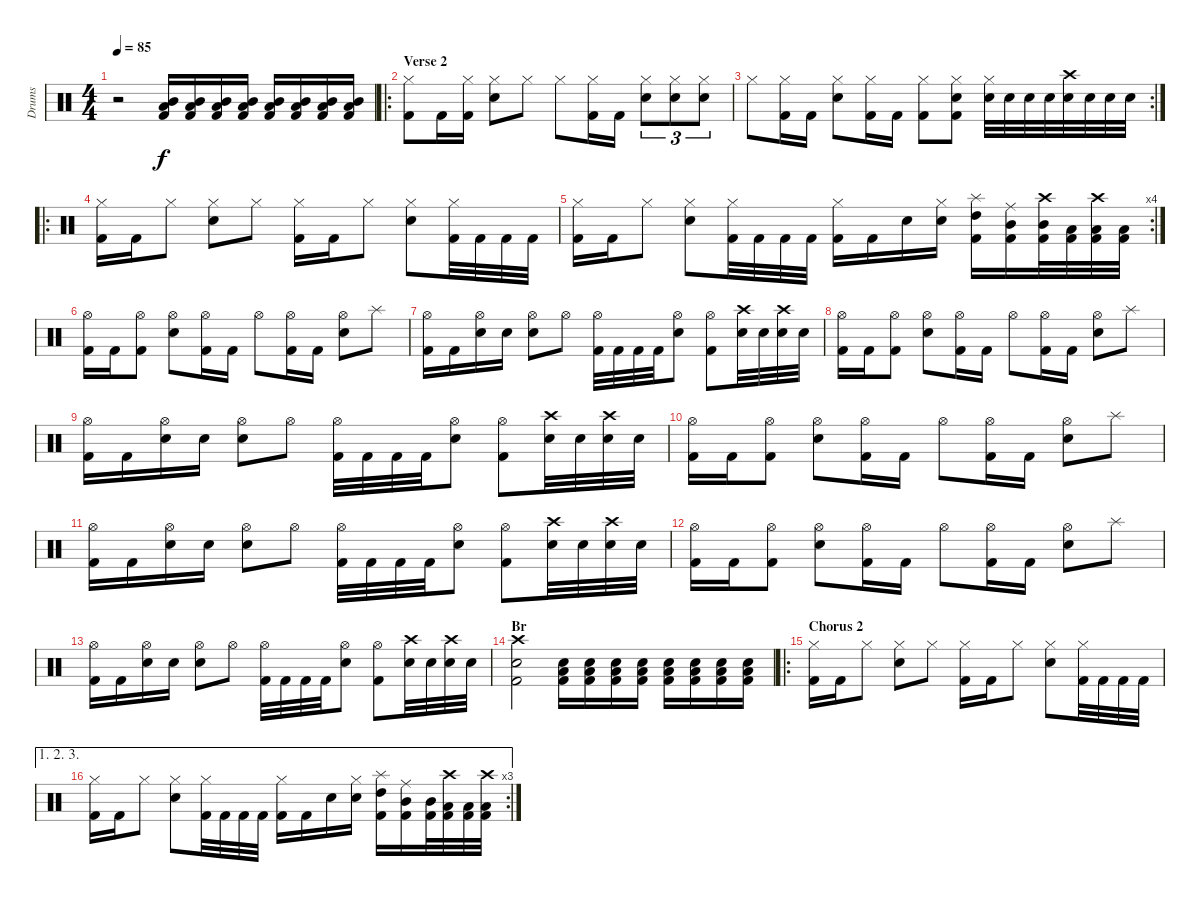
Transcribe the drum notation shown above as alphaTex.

\track ("Drums" "Drums") {instrument percussion}
\staff {score}
\articulation defaults
\ts (4 4)
\tempo 85
\clef neutral
\ks c
r.2{dy f} ("Mid Tom (hit)" "Low Floor Tom (hit)" "Kick (hit) 2").16{volume 15} ("Mid Tom (hit)" "Low Floor Tom (hit)" "Kick (hit) 2").16 ("Mid Tom (hit)" "Low Floor Tom (hit)" "Kick (hit) 2").16 ("Mid Tom (hit)" "Low Floor Tom (hit)" "Kick (hit) 2").16 ("Mid Tom (hit)" "Low Floor Tom (hit)" "Kick (hit) 2").16 ("Mid Tom (hit)" "Low Floor Tom (hit)" "Kick (hit) 2").16 ("Mid Tom (hit)" "Low Floor Tom (hit)" "Kick (hit) 2").16 ("Mid Tom (hit)" "Low Floor Tom (hit)" "Kick (hit) 2").16 |
\ro
\section ("" "Verse 2")
("Hi-Hat (closed)" "Kick (hit) 2").8{volume 11} "Kick (hit) 2".16 ("Hi-Hat (closed)" "Kick (hit) 2").16 ("Hi-Hat (closed)" "Snare (hit) 2").8 "Hi-Hat (closed)".8 "Hi-Hat (closed)".8 ("Hi-Hat (closed)" "Kick (hit) 2").16 "Kick (hit) 2".16 ("Hi-Hat (closed)" "Snare (hit) 2").8{tu (3 2)} ("Hi-Hat (closed)" "Snare (hit) 2").8{tu (3 2)} ("Hi-Hat (closed)" "Snare (hit) 2").8{tu (3 2)} |
\rc 2 "Hi-Hat (closed)".8
("Hi-Hat (closed)" "Kick (hit) 2").16 "Kick (hit) 2".16 ("Hi-Hat (closed)" "Snare (hit) 2").8 ("Hi-Hat (closed)" "Kick (hit) 2").16 "Kick (hit) 2".16 ("Hi-Hat (closed)" "Kick (hit) 2").8 ("Hi-Hat (closed)" "Snare (hit) 2" "Kick (hit) 2").8 ("Hi-Hat (closed)" "Snare (hit) 2").32 "Snare (hit) 2".32 "Snare (hit) 2".32 "Snare (hit) 2".32 ("Crash high (hit)" "Snare (hit) 2").32 "Snare (hit) 2".32 "Snare (hit) 2".32 "Snare (hit) 2".32 |
\ro
("Hi-Hat (closed)" "Kick (hit) 2").16 "Kick (hit) 2".16 "Hi-Hat (closed)".8 ("Hi-Hat (closed)" "Snare (hit) 2").8 "Hi-Hat (closed)".8 ("Hi-Hat (closed)" "Kick (hit) 2").16 "Kick (hit) 2".16 "Hi-Hat (closed)".8 ("Hi-Hat (closed)" "Snare (hit) 2").8 ("Hi-Hat (closed)" "Kick (hit) 2").32 "Kick (hit) 2".32 "Kick (hit) 2".32 "Kick (hit) 2".32 |
\rc 4
("Hi-Hat (closed)" "Kick (hit) 2").16 "Kick (hit) 2".16 "Hi-Hat (closed)".8 ("Hi-Hat (closed)" "Snare (hit) 2").8 ("Hi-Hat (closed)" "Kick (hit) 2").32 "Kick (hit) 2".32 "Kick (hit) 2".32 "Kick (hit) 2".32 ("Hi-Hat (closed)" "Kick (hit) 2").16 "Kick (hit) 2".16 "Snare (hit) 2".16 ("Hi-Hat (closed)" "Snare (hit) 2").16 ("Splash (hit)" "High Tom (hit)" "Kick (hit) 2").16 ("Ride (middle)" "Mid Tom (hit)" "Kick (hit) 2").16 ("Crash high (hit)" "Mid Tom (hit)" "Kick (hit) 2").32 ("Low Tom (hit)" "Kick (hit) 2").32 ("Crash high (hit)" "Low Tom (hit)" "Kick (hit) 2").32 ("Low Tom (hit)" "Kick (hit) 2").32 |
("Hi-Hat (open)" "Kick (hit) 2").16 "Kick (hit) 2".16 ("Hi-Hat (open)" "Kick (hit) 2").8 ("Hi-Hat (open)" "Snare (hit) 2").8 ("Hi-Hat (open)" "Kick (hit) 2").16 "Kick (hit) 2".16 "Hi-Hat (open)".8 ("Hi-Hat (open)" "Kick (hit) 2").16 "Kick (hit) 2".16 ("Hi-Hat (open)" "Snare (hit) 2").8 "Splash (hit)".8 |
("Hi-Hat (open)" "Kick (hit) 2").16 "Kick (hit) 2".16 ("Hi-Hat (open)" "Snare (hit) 2").16 "Snare (hit) 2".16 ("Hi-Hat (open)" "Snare (hit) 2").8 "Hi-Hat (open)".8 ("Hi-Hat (open)" "Kick (hit) 2").32 "Kick (hit) 2".32 "Kick (hit) 2".32 "Kick (hit) 2".32 ("Hi-Hat (open)" "Snare (hit) 2").8 ("Hi-Hat (open)" "Kick (hit) 2").8 ("Crash high (hit)" "Snare (hit) 2").32 "Snare (hit) 2".32 ("Crash high (hit)" "Snare (hit) 2").32 "Snare (hit) 2".32 |
("Hi-Hat (open)" "Kick (hit) 2").16 "Kick (hit) 2".16 ("Hi-Hat (open)" "Kick (hit) 2").8 ("Hi-Hat (open)" "Snare (hit) 2").8 ("Hi-Hat (open)" "Kick (hit) 2").16 "Kick (hit) 2".16 "Hi-Hat (open)".8 ("Hi-Hat (open)" "Kick (hit) 2").16 "Kick (hit) 2".16 ("Hi-Hat (open)" "Snare (hit) 2").8 "Splash (hit)".8 |
("Hi-Hat (open)" "Kick (hit) 2").16 "Kick (hit) 2".16 ("Hi-Hat (open)" "Snare (hit) 2").16 "Snare (hit) 2".16 ("Hi-Hat (open)" "Snare (hit) 2").8 "Hi-Hat (open)".8 ("Hi-Hat (open)" "Kick (hit) 2").32 "Kick (hit) 2".32 "Kick (hit) 2".32 "Kick (hit) 2".32 ("Hi-Hat (open)" "Snare (hit) 2").8 ("Hi-Hat (open)" "Kick (hit) 2").8 ("Crash high (hit)" "Snare (hit) 2").32 "Snare (hit) 2".32 ("Crash high (hit)" "Snare (hit) 2").32 "Snare (hit) 2".32 |
("Hi-Hat (open)" "Kick (hit) 2").16 "Kick (hit) 2".16 ("Hi-Hat (open)" "Kick (hit) 2").8 ("Hi-Hat (open)" "Snare (hit) 2").8 ("Hi-Hat (open)" "Kick (hit) 2").16 "Kick (hit) 2".16 "Hi-Hat (open)".8 ("Hi-Hat (open)" "Kick (hit) 2").16 "Kick (hit) 2".16 ("Hi-Hat (open)" "Snare (hit) 2").8 "Splash (hit)".8 |
("Hi-Hat (open)" "Kick (hit) 2").16 "Kick (hit) 2".16 ("Hi-Hat (open)" "Snare (hit) 2").16 "Snare (hit) 2".16 ("Hi-Hat (open)" "Snare (hit) 2").8 "Hi-Hat (open)".8 ("Hi-Hat (open)" "Kick (hit) 2").32 "Kick (hit) 2".32 "Kick (hit) 2".32 "Kick (hit) 2".32 ("Hi-Hat (open)" "Snare (hit) 2").8 ("Hi-Hat (open)" "Kick (hit) 2").8 ("Crash high (hit)" "Snare (hit) 2").32 "Snare (hit) 2".32 ("Crash high (hit)" "Snare (hit) 2").32 "Snare (hit) 2".32 |
("Hi-Hat (open)" "Kick (hit) 2").16 "Kick (hit) 2".16 ("Hi-Hat (open)" "Kick (hit) 2").8 ("Hi-Hat (open)" "Snare (hit) 2").8 ("Hi-Hat (open)" "Kick (hit) 2").16 "Kick (hit) 2".16 "Hi-Hat (open)".8 ("Hi-Hat (open)" "Kick (hit) 2").16 "Kick (hit) 2".16 ("Hi-Hat (open)" "Snare (hit) 2").8 "Splash (hit)".8 |
("Hi-Hat (open)" "Kick (hit) 2").16 "Kick (hit) 2".16 ("Hi-Hat (open)" "Snare (hit) 2").16 "Snare (hit) 2".16 ("Hi-Hat (open)" "Snare (hit) 2").8 "Hi-Hat (open)".8 ("Hi-Hat (open)" "Kick (hit) 2").32 "Kick (hit) 2".32 "Kick (hit) 2".32 "Kick (hit) 2".32 ("Hi-Hat (open)" "Snare (hit) 2").8 ("Hi-Hat (open)" "Kick (hit) 2").8 ("Crash high (hit)" "Snare (hit) 2").32 "Snare (hit) 2".32 ("Crash high (hit)" "Snare (hit) 2").32 "Snare (hit) 2".32 |
\section ("" "Br")
("Crash high (hit)" "Snare (hit) 2" "Kick (hit) 2").2 ("Low Floor Tom (hit)" "Snare (hit) 2" "Kick (hit) 2").16{volume 13} ("Low Floor Tom (hit)" "Snare (hit) 2" "Kick (hit) 2").16 ("Low Floor Tom (hit)" "Snare (hit) 2" "Kick (hit) 2").16 ("Low Floor Tom (hit)" "Snare (hit) 2" "Kick (hit) 2").16 ("Low Floor Tom (hit)" "Snare (hit) 2" "Kick (hit) 2").16 ("Low Floor Tom (hit)" "Snare (hit) 2" "Kick (hit) 2").16 ("Low Floor Tom (hit)" "Snare (hit) 2" "Kick (hit) 2").16 ("Low Floor Tom (hit)" "Snare (hit) 2" "Kick (hit) 2").16 |
\ro
\section ("" "Chorus 2")
("Hi-Hat (closed)" "Kick (hit) 2").16 "Kick (hit) 2".16 "Hi-Hat (closed)".8 ("Hi-Hat (closed)" "Snare (hit) 2").8 "Hi-Hat (closed)".8 ("Hi-Hat (closed)" "Kick (hit) 2").16 "Kick (hit) 2".16 "Hi-Hat (closed)".8 ("Hi-Hat (closed)" "Snare (hit) 2").8 ("Hi-Hat (closed)" "Kick (hit) 2").32 "Kick (hit) 2".32 "Kick (hit) 2".32 "Kick (hit) 2".32 |
\ae (1 2 3)
\rc 3
("Hi-Hat (closed)" "Kick (hit) 2").16 "Kick (hit) 2".16 "Hi-Hat (closed)".8 ("Hi-Hat (closed)" "Snare (hit) 2").8 ("Hi-Hat (closed)" "Kick (hit) 2").32 "Kick (hit) 2".32 "Kick (hit) 2".32 "Kick (hit) 2".32 ("Hi-Hat (closed)" "Kick (hit) 2").16 "Kick (hit) 2".16 "Snare (hit) 2".16 ("Hi-Hat (closed)" "Snare (hit) 2").16 ("Splash (hit)" "High Tom (hit)" "Kick (hit) 2").16 ("Ride (middle)" "Mid Tom (hit)" "Kick (hit) 2").16 ("Mid Tom (hit)" "Kick (hit) 2").32 ("Crash high (hit)" "Low Tom (hit)" "Kick (hit) 2").32 ("Low Tom (hit)" "Kick (hit) 2").32 ("Crash high (hit)" "Low Tom (hit)" "Kick (hit) 2").32
